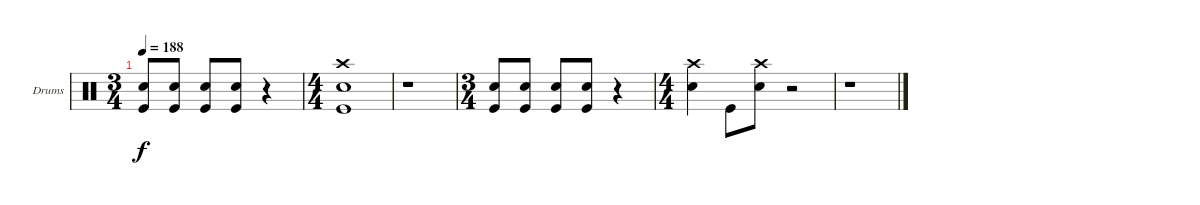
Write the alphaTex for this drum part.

\bracketExtendMode nobrackets
\firstSystemTrackNameOrientation horizontal
\otherSystemsTrackNameOrientation horizontal
\defaultBarNumberDisplay FirstOfSystem
\track ("Drumkit" "Drums") {instrument percussion}
\staff {score}
\articulation defaults
\ts (3 4)
\tempo 188
\clef neutral
\ks c
("Kick (hit)" "Snare (hit) 2").8{dy f} ("Kick (hit)" "Snare (hit) 2").8 ("Kick (hit)" "Snare (hit) 2").8 ("Kick (hit)" "Snare (hit) 2").8 r.4 |
\ts (4 4)
("Crash high (hit)" "Kick (hit)" "Snare (hit) 2").1 |
r.1 |
\ts (3 4)
("Kick (hit)" "Snare (hit) 2").8 ("Kick (hit)" "Snare (hit) 2").8 ("Kick (hit)" "Snare (hit) 2").8 ("Kick (hit)" "Snare (hit) 2").8 r.4 |
\ts (4 4)
("Crash high (hit)" "Snare (hit) 2").4 "Kick (hit)".8 ("Crash high (hit)" "Snare (hit) 2").8 r.2 |
r.1
